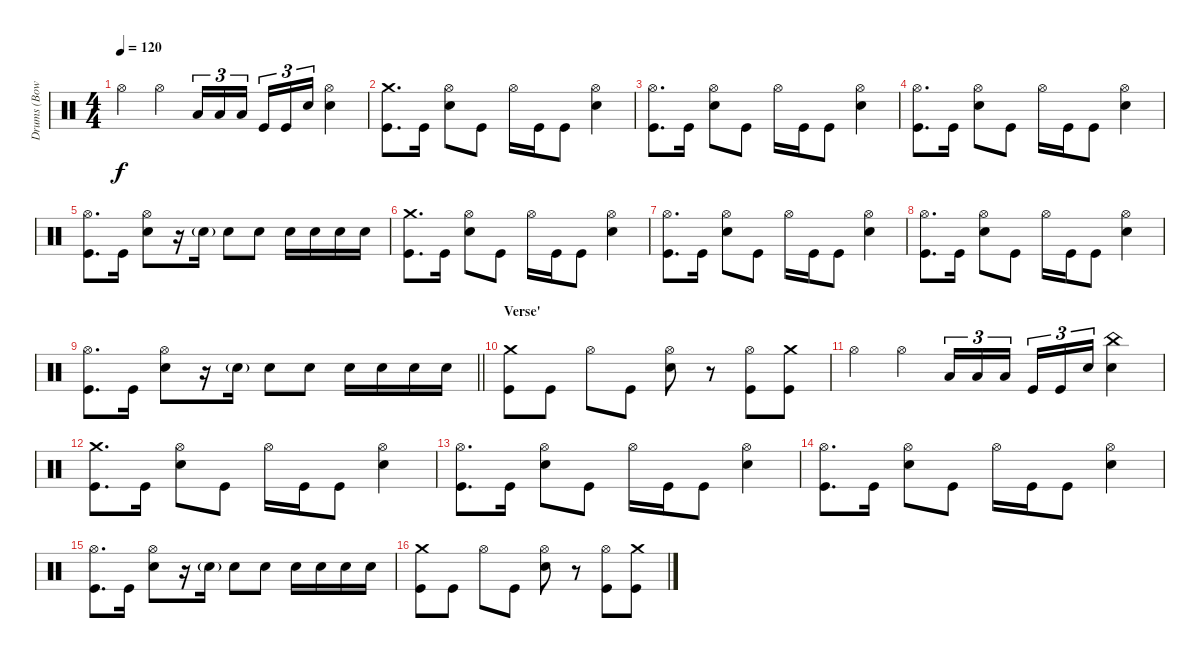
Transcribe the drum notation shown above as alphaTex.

\track ("Drums (Bowders)" "Drums (Bow") {instrument percussion}
\staff {score}
\articulation defaults
\ts (4 4)
\tempo 120
\clef neutral
\ks c "Hi-Hat (open)".4{dy f} "Hi-Hat (open)".4 "Low Floor Tom (hit)".16{tu (3 2)} "Low Floor Tom (hit)".16{tu (3 2)} "Low Floor Tom (hit)".16{tu (3 2)} "Kick (hit)".16{tu (3 2)} "Kick (hit)".16{tu (3 2)} "Snare (hit) 2".16{tu (3 2)}
("Snare (hit) 2" "Hi-Hat (open)").4 |
("Kick (hit)" "Crash medium (hit)").8{d} "Kick (hit)".16 ("Snare (hit) 2" "Hi-Hat (open)").8 "Kick (hit)".8 "Hi-Hat (open)".16 "Kick (hit)".16 "Kick (hit)".8 ("Snare (hit) 2" "Hi-Hat (open)").4 |
("Kick (hit)" "Hi-Hat (open)").8{d} "Kick (hit)".16 ("Snare (hit) 2" "Hi-Hat (open)").8 "Kick (hit)".8 "Hi-Hat (open)".16 "Kick (hit)".16 "Kick (hit)".8 ("Snare (hit) 2" "Hi-Hat (open)").4 |
("Kick (hit)" "Hi-Hat (open)").8{d} "Kick (hit)".16 ("Snare (hit) 2" "Hi-Hat (open)").8 "Kick (hit)".8 "Hi-Hat (open)".16 "Kick (hit)".16 "Kick (hit)".8 ("Snare (hit) 2" "Hi-Hat (open)").4 |
("Kick (hit)" "Hi-Hat (open)").8{d} "Kick (hit)".16 ("Snare (hit) 2" "Hi-Hat (open)").8 r.16 "Snare (hit) 2"{g}.16 "Snare (hit) 2".8 "Snare (hit) 2".8 "Snare (hit) 2".16 "Snare (hit) 2".16 "Snare (hit) 2".16 "Snare (hit) 2".16 |
("Kick (hit)" "Crash medium (hit)").8{d} "Kick (hit)".16 ("Snare (hit) 2" "Hi-Hat (open)").8 "Kick (hit)".8 "Hi-Hat (open)".16 "Kick (hit)".16 "Kick (hit)".8 ("Snare (hit) 2" "Hi-Hat (open)").4 |
("Kick (hit)" "Hi-Hat (open)").8{d} "Kick (hit)".16 ("Snare (hit) 2" "Hi-Hat (open)").8 "Kick (hit)".8 "Hi-Hat (open)".16 "Kick (hit)".16 "Kick (hit)".8 ("Snare (hit) 2" "Hi-Hat (open)").4 |
("Kick (hit)" "Hi-Hat (open)").8{d} "Kick (hit)".16 ("Snare (hit) 2" "Hi-Hat (open)").8 "Kick (hit)".8 "Hi-Hat (open)".16 "Kick (hit)".16 "Kick (hit)".8 ("Snare (hit) 2" "Hi-Hat (open)").4 |
\barLineRight lightlight
("Kick (hit)" "Hi-Hat (open)").8{d} "Kick (hit)".16 ("Snare (hit) 2" "Hi-Hat (open)").8 r.16 "Snare (hit) 2"{g}.16 "Snare (hit) 2".8 "Snare (hit) 2".8 "Snare (hit) 2".16 "Snare (hit) 2".16 "Snare (hit) 2".16 "Snare (hit) 2".16 |
\section ("" "Verse'")
("Kick (hit)" "Crash medium (hit)").8 "Kick (hit)".8 "Hi-Hat (open)".8 "Kick (hit)".8 ("Snare (hit) 2" "Hi-Hat (open)").8 r.8 ("Kick (hit)" "Hi-Hat (open)").8 ("Kick (hit)" "Crash medium (hit)").8 |
"Hi-Hat (open)".4 "Hi-Hat (open)".4 "Low Floor Tom (hit)".16{tu (3 2)} "Low Floor Tom (hit)".16{tu (3 2)} "Low Floor Tom (hit)".16{tu (3 2)} "Kick (hit)".16{tu (3 2)} "Kick (hit)".16{tu (3 2)} "Snare (hit) 2".16{tu (3 2)} ("Snare (hit) 2" "China (hit)").4 |
("Kick (hit)" "Crash medium (hit)").8{d} "Kick (hit)".16 ("Snare (hit) 2" "Hi-Hat (open)").8 "Kick (hit)".8 "Hi-Hat (open)".16 "Kick (hit)".16 "Kick (hit)".8 ("Snare (hit) 2" "Hi-Hat (open)").4 |
("Kick (hit)" "Hi-Hat (open)").8{d} "Kick (hit)".16 ("Snare (hit) 2" "Hi-Hat (open)").8 "Kick (hit)".8 "Hi-Hat (open)".16 "Kick (hit)".16 "Kick (hit)".8 ("Snare (hit) 2" "Hi-Hat (open)").4 |
("Kick (hit)" "Hi-Hat (open)").8{d} "Kick (hit)".16 ("Snare (hit) 2" "Hi-Hat (open)").8 "Kick (hit)".8 "Hi-Hat (open)".16 "Kick (hit)".16 "Kick (hit)".8 ("Snare (hit) 2" "Hi-Hat (open)").4 |
("Kick (hit)" "Hi-Hat (open)").8{d} "Kick (hit)".16 ("Snare (hit) 2" "Hi-Hat (open)").8 r.16 "Snare (hit) 2"{g}.16 "Snare (hit) 2".8 "Snare (hit) 2".8 "Snare (hit) 2".16 "Snare (hit) 2".16 "Snare (hit) 2".16 "Snare (hit) 2".16 |
("Kick (hit)" "Crash medium (hit)").8 "Kick (hit)".8 "Hi-Hat (open)".8 "Kick (hit)".8 ("Snare (hit) 2" "Hi-Hat (open)").8 r.8 ("Kick (hit)" "Hi-Hat (open)").8 ("Kick (hit)" "Crash medium (hit)").8
